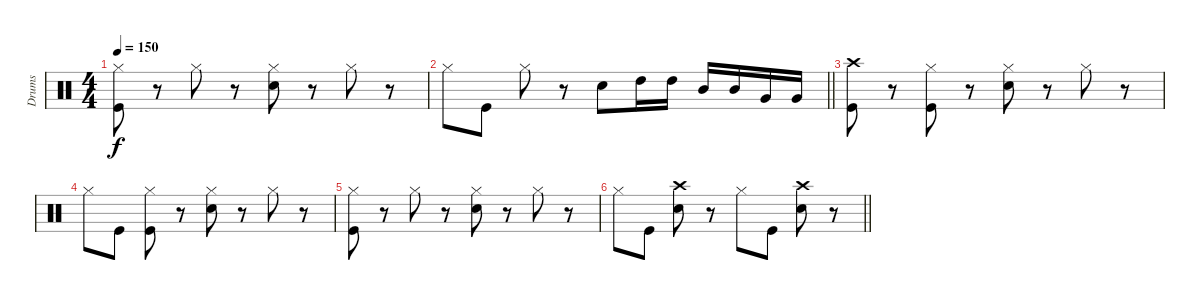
\track ("Drums" "Drums") {instrument percussion}
\staff {score}
\articulation defaults
\ts (4 4)
\tempo 150
\clef neutral
\ks c
("Hi-Hat (closed)" "Kick (hit)").8{dy f} r.8 "Hi-Hat (closed)".8 r.8 ("Hi-Hat (closed)" "Electric Snare (hit)").8 r.8 "Hi-Hat (closed)".8 r.8 |
\barLineRight lightlight "Hi-Hat (closed)".8 "Kick (hit)".8 "Hi-Hat (closed)".8
r.8 "Electric Snare (hit)".8 "High Tom (hit)".16 "High Tom (hit)".16 "Mid Tom (hit)".16 "Mid Tom (hit)".16 "Very Low Tom (hit)".16 "Very Low Tom (hit)".16 |
("Crash high (hit)" "Kick (hit)").8 r.8 ("Hi-Hat (closed)" "Kick (hit)").8 r.8 ("Hi-Hat (closed)" "Electric Snare (hit)").8 r.8 "Hi-Hat (closed)".8 r.8 |
"Hi-Hat (closed)".8 "Kick (hit)".8 ("Hi-Hat (closed)" "Kick (hit)").8 r.8 ("Hi-Hat (closed)" "Electric Snare (hit)").8 r.8 "Hi-Hat (closed)".8 r.8 |
("Hi-Hat (closed)" "Kick (hit)").8 r.8 "Hi-Hat (closed)".8 r.8 ("Hi-Hat (closed)" "Electric Snare (hit)").8 r.8 "Hi-Hat (closed)".8 r.8 |
\barLineRight lightlight "Hi-Hat (closed)".8 "Kick (hit)".8
("Crash high (hit)" "Electric Snare (hit)").8 r.8 "Hi-Hat (closed)".8 "Kick (hit)".8 ("Crash high (hit)" "Electric Snare (hit)").8 r.8
